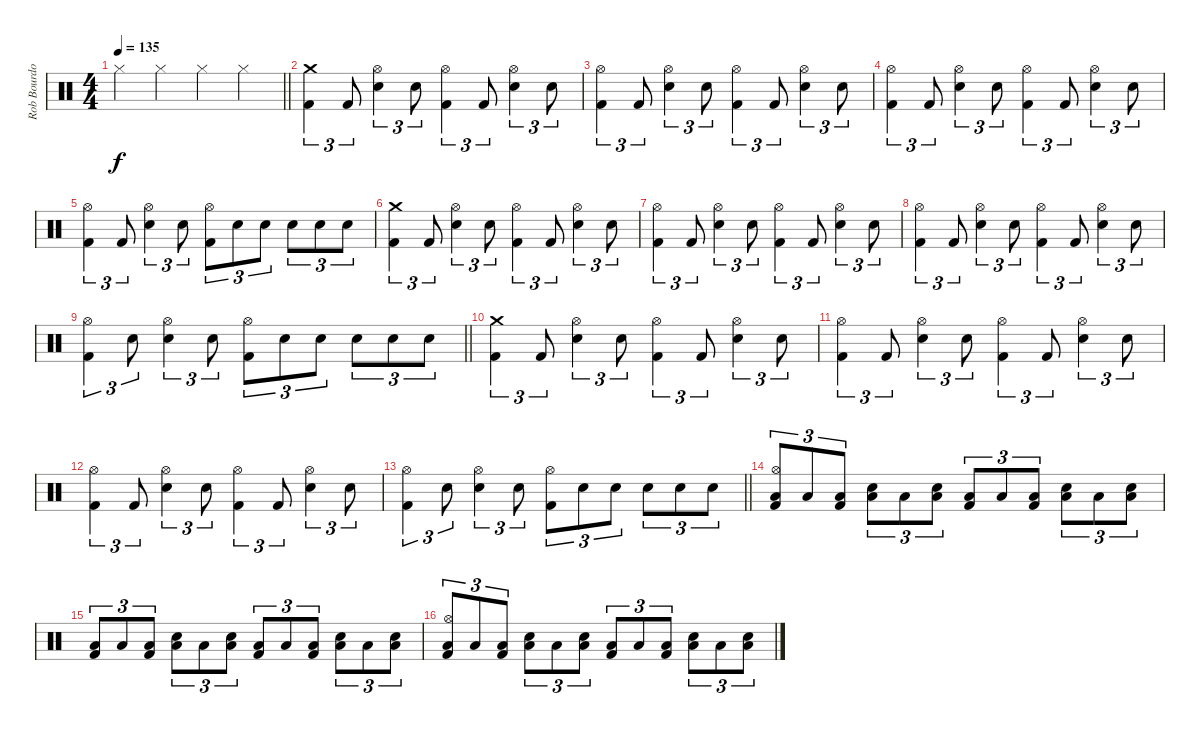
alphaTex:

\track ("Rob Bourdon [Drums]" "Rob Bourdo") {instrument percussion bank 5}
\staff {score}
\articulation defaults
\ts (4 4)
\tempo 135
\clef neutral
\barLineRight lightlight
\ks c "Hi-Hat (closed)".4{dy f} "Hi-Hat (closed)".4 "Hi-Hat (closed)".4 "Hi-Hat (closed)".4
|
("Crash medium (hit)" "Kick (hit) 2").4{tu (3 2)} "Kick (hit) 2".8{tu (3 2)} ("Hi-Hat (open)" "Electric Snare (hit)").4{tu (3 2)} "Electric Snare (hit)".8{tu (3 2)} ("Hi-Hat (open)" "Kick (hit) 2").4{tu (3 2)} "Kick (hit) 2".8{tu (3 2)} ("Hi-Hat (open)" "Electric Snare (hit)").4{tu (3 2)} "Electric Snare (hit)".8{tu (3 2)} |
("Hi-Hat (open)" "Kick (hit) 2").4{tu (3 2)} "Kick (hit) 2".8{tu (3 2)} ("Hi-Hat (open)" "Electric Snare (hit)").4{tu (3 2)} "Electric Snare (hit)".8{tu (3 2)} ("Hi-Hat (open)" "Kick (hit) 2").4{tu (3 2)} "Kick (hit) 2".8{tu (3 2)} ("Hi-Hat (open)" "Electric Snare (hit)").4{tu (3 2)} "Electric Snare (hit)".8{tu (3 2)} |
("Hi-Hat (open)" "Kick (hit) 2").4{tu (3 2)} "Kick (hit) 2".8{tu (3 2)} ("Hi-Hat (open)" "Electric Snare (hit)").4{tu (3 2)} "Electric Snare (hit)".8{tu (3 2)} ("Hi-Hat (open)" "Kick (hit) 2").4{tu (3 2)} "Kick (hit) 2".8{tu (3 2)} ("Hi-Hat (open)" "Electric Snare (hit)").4{tu (3 2)} "Electric Snare (hit)".8{tu (3 2)} |
("Hi-Hat (open)" "Kick (hit) 2").4{tu (3 2)} "Kick (hit) 2".8{tu (3 2)} ("Hi-Hat (open)" "Electric Snare (hit)").4{tu (3 2)} "Electric Snare (hit)".8{tu (3 2)} ("Hi-Hat (open)" "Kick (hit) 2").8{tu (3 2)} "Electric Snare (hit)".8{tu (3 2)} "Electric Snare (hit)".8{tu (3 2)} "Electric Snare (hit)".8{tu (3 2)} "Electric Snare (hit)".8{tu (3 2)} "Electric Snare (hit)".8{tu (3 2)} |
("Crash medium (hit)" "Kick (hit) 2").4{tu (3 2)} "Kick (hit) 2".8{tu (3 2)} ("Hi-Hat (open)" "Electric Snare (hit)").4{tu (3 2)} "Electric Snare (hit)".8{tu (3 2)} ("Hi-Hat (open)" "Kick (hit) 2").4{tu (3 2)} "Kick (hit) 2".8{tu (3 2)} ("Hi-Hat (open)" "Electric Snare (hit)").4{tu (3 2)} "Electric Snare (hit)".8{tu (3 2)} |
("Hi-Hat (open)" "Kick (hit) 2").4{tu (3 2)} "Kick (hit) 2".8{tu (3 2)} ("Hi-Hat (open)" "Electric Snare (hit)").4{tu (3 2)} "Electric Snare (hit)".8{tu (3 2)} ("Hi-Hat (open)" "Kick (hit) 2").4{tu (3 2)} "Kick (hit) 2".8{tu (3 2)} ("Hi-Hat (open)" "Electric Snare (hit)").4{tu (3 2)} "Electric Snare (hit)".8{tu (3 2)} |
("Hi-Hat (open)" "Kick (hit) 2").4{tu (3 2)} "Kick (hit) 2".8{tu (3 2)} ("Hi-Hat (open)" "Electric Snare (hit)").4{tu (3 2)} "Electric Snare (hit)".8{tu (3 2)} ("Hi-Hat (open)" "Kick (hit) 2").4{tu (3 2)} "Kick (hit) 2".8{tu (3 2)} ("Hi-Hat (open)" "Electric Snare (hit)").4{tu (3 2)} "Electric Snare (hit)".8{tu (3 2)} |
\barLineRight lightlight
("Hi-Hat (open)" "Kick (hit) 2").4{tu (3 2)} "Electric Snare (hit)".8{tu (3 2)} ("Hi-Hat (open)" "Electric Snare (hit)").4{tu (3 2)} "Electric Snare (hit)".8{tu (3 2)} ("Hi-Hat (open)" "Kick (hit) 2").8{tu (3 2)} "Electric Snare (hit)".8{tu (3 2)} "Electric Snare (hit)".8{tu (3 2)} "Electric Snare (hit)".8{tu (3 2)} "Electric Snare (hit)".8{tu (3 2)} "Electric Snare (hit)".8{tu (3 2)} |
("Crash medium (hit)" "Kick (hit) 2").4{tu (3 2)} "Kick (hit) 2".8{tu (3 2)} ("Hi-Hat (open)" "Electric Snare (hit)").4{tu (3 2)} "Electric Snare (hit)".8{tu (3 2)} ("Hi-Hat (open)" "Kick (hit) 2").4{tu (3 2)} "Kick (hit) 2".8{tu (3 2)} ("Hi-Hat (open)" "Electric Snare (hit)").4{tu (3 2)} "Electric Snare (hit)".8{tu (3 2)} |
("Hi-Hat (open)" "Kick (hit) 2").4{tu (3 2)} "Kick (hit) 2".8{tu (3 2)} ("Hi-Hat (open)" "Electric Snare (hit)").4{tu (3 2)} "Electric Snare (hit)".8{tu (3 2)} ("Hi-Hat (open)" "Kick (hit) 2").4{tu (3 2)} "Kick (hit) 2".8{tu (3 2)} ("Hi-Hat (open)" "Electric Snare (hit)").4{tu (3 2)} "Electric Snare (hit)".8{tu (3 2)} |
("Hi-Hat (open)" "Kick (hit) 2").4{tu (3 2)} "Kick (hit) 2".8{tu (3 2)} ("Hi-Hat (open)" "Electric Snare (hit)").4{tu (3 2)} "Electric Snare (hit)".8{tu (3 2)} ("Hi-Hat (open)" "Kick (hit) 2").4{tu (3 2)} "Kick (hit) 2".8{tu (3 2)} ("Hi-Hat (open)" "Electric Snare (hit)").4{tu (3 2)} "Electric Snare (hit)".8{tu (3 2)} |
\barLineRight lightlight
("Hi-Hat (open)" "Kick (hit) 2").4{tu (3 2)} "Electric Snare (hit)".8{tu (3 2)} ("Hi-Hat (open)" "Electric Snare (hit)").4{tu (3 2)} "Electric Snare (hit)".8{tu (3 2)} ("Hi-Hat (open)" "Kick (hit) 2").8{tu (3 2)} "Electric Snare (hit)".8{tu (3 2)} "Electric Snare (hit)".8{tu (3 2)} "Electric Snare (hit)".8{tu (3 2)} "Electric Snare (hit)".8{tu (3 2)} "Electric Snare (hit)".8{tu (3 2)} |
("Hi-Hat (open)" "Low Tom (hit)" "Kick (hit) 2").8{tu (3 2)} "Low Tom (hit)".8{tu (3 2)} ("Low Tom (hit)" "Kick (hit) 2").8{tu (3 2)} ("Low Tom (hit)" "Electric Snare (hit)").8{tu (3 2)} "Low Tom (hit)".8{tu (3 2)} ("Low Tom (hit)" "Electric Snare (hit)").8{tu (3 2)} ("Low Tom (hit)" "Kick (hit) 2").8{tu (3 2)} "Low Tom (hit)".8{tu (3 2)} ("Low Tom (hit)" "Kick (hit) 2").8{tu (3 2)} ("Low Tom (hit)" "Electric Snare (hit)").8{tu (3 2)} "Low Tom (hit)".8{tu (3 2)} ("Low Tom (hit)" "Electric Snare (hit)").8{tu (3 2)} |
("Low Tom (hit)" "Kick (hit) 2").8{tu (3 2)} "Low Tom (hit)".8{tu (3 2)} ("Low Tom (hit)" "Kick (hit) 2").8{tu (3 2)} ("Low Tom (hit)" "Electric Snare (hit)").8{tu (3 2)} "Low Tom (hit)".8{tu (3 2)} ("Low Tom (hit)" "Electric Snare (hit)").8{tu (3 2)} ("Low Tom (hit)" "Kick (hit) 2").8{tu (3 2)} "Low Tom (hit)".8{tu (3 2)} ("Low Tom (hit)" "Kick (hit) 2").8{tu (3 2)} ("Low Tom (hit)" "Electric Snare (hit)").8{tu (3 2)} "Low Tom (hit)".8{tu (3 2)} ("Low Tom (hit)" "Electric Snare (hit)").8{tu (3 2)} |
("Hi-Hat (open)" "Low Tom (hit)" "Kick (hit) 2").8{tu (3 2)} "Low Tom (hit)".8{tu (3 2)} ("Low Tom (hit)" "Kick (hit) 2").8{tu (3 2)} ("Low Tom (hit)" "Electric Snare (hit)").8{tu (3 2)} "Low Tom (hit)".8{tu (3 2)} ("Low Tom (hit)" "Electric Snare (hit)").8{tu (3 2)} ("Low Tom (hit)" "Kick (hit) 2").8{tu (3 2)} "Low Tom (hit)".8{tu (3 2)} ("Low Tom (hit)" "Kick (hit) 2").8{tu (3 2)} ("Low Tom (hit)" "Electric Snare (hit)").8{tu (3 2)} "Low Tom (hit)".8{tu (3 2)} ("Low Tom (hit)" "Electric Snare (hit)").8{tu (3 2)}
